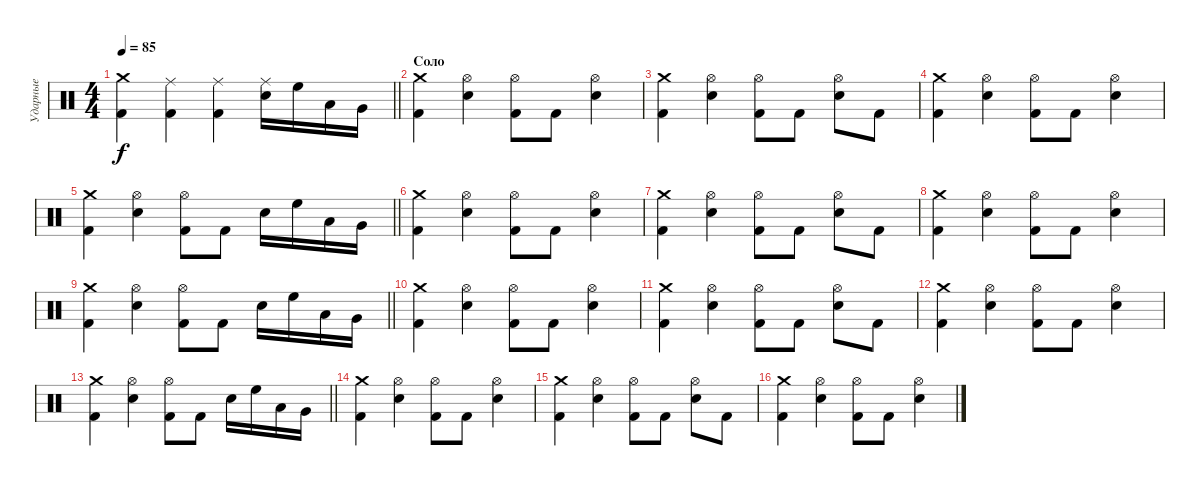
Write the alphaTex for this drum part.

\track ("Ударные" "Ударные") {instrument percussion}
\staff {score}
\articulation defaults
\ts (4 4)
\tempo 85
\clef neutral
\barLineRight lightlight
\ks c
("Crash medium (hit)" "Kick (hit) 2").4{dy f} ("Ride (middle)" "Kick (hit) 2").4 ("Ride (middle)" "Kick (hit) 2").4 ("Ride (middle)" "Snare (hit) 2").16 "High Floor Tom (hit)".16 "Low Tom (hit)".16 "Very Low Tom (hit)".16 |
\section ("" "Соло")
("Crash medium (hit)" "Kick (hit) 2").4 ("Hi-Hat (open)" "Snare (hit) 2").4 ("Hi-Hat (open)" "Kick (hit) 2").8 "Kick (hit) 2".8 ("Hi-Hat (open)" "Snare (hit) 2").4 |
("Crash medium (hit)" "Kick (hit) 2").4 ("Hi-Hat (open)" "Snare (hit) 2").4 ("Hi-Hat (open)" "Kick (hit) 2").8 "Kick (hit) 2".8 ("Hi-Hat (open)" "Snare (hit) 2").8 "Kick (hit) 2".8 |
("Crash medium (hit)" "Kick (hit) 2").4 ("Hi-Hat (open)" "Snare (hit) 2").4 ("Hi-Hat (open)" "Kick (hit) 2").8 "Kick (hit) 2".8 ("Hi-Hat (open)" "Snare (hit) 2").4 |
\barLineRight lightlight
("Crash medium (hit)" "Kick (hit) 2").4 ("Hi-Hat (open)" "Snare (hit) 2").4 ("Hi-Hat (open)" "Kick (hit) 2").8 "Kick (hit) 2".8 "Snare (hit) 2".16 "High Floor Tom (hit)".16 "Low Tom (hit)".16 "Very Low Tom (hit)".16 |
("Crash medium (hit)" "Kick (hit) 2").4 ("Hi-Hat (open)" "Snare (hit) 2").4 ("Hi-Hat (open)" "Kick (hit) 2").8 "Kick (hit) 2".8 ("Hi-Hat (open)" "Snare (hit) 2").4 |
("Crash medium (hit)" "Kick (hit) 2").4 ("Hi-Hat (open)" "Snare (hit) 2").4 ("Hi-Hat (open)" "Kick (hit) 2").8 "Kick (hit) 2".8 ("Hi-Hat (open)" "Snare (hit) 2").8 "Kick (hit) 2".8 |
("Crash medium (hit)" "Kick (hit) 2").4 ("Hi-Hat (open)" "Snare (hit) 2").4 ("Hi-Hat (open)" "Kick (hit) 2").8 "Kick (hit) 2".8 ("Hi-Hat (open)" "Snare (hit) 2").4 |
\barLineRight lightlight
("Crash medium (hit)" "Kick (hit) 2").4 ("Hi-Hat (open)" "Snare (hit) 2").4 ("Hi-Hat (open)" "Kick (hit) 2").8 "Kick (hit) 2".8 "Snare (hit) 2".16 "High Floor Tom (hit)".16 "Low Tom (hit)".16 "Very Low Tom (hit)".16 |
("Crash medium (hit)" "Kick (hit) 2").4 ("Hi-Hat (open)" "Snare (hit) 2").4 ("Hi-Hat (open)" "Kick (hit) 2").8 "Kick (hit) 2".8 ("Hi-Hat (open)" "Snare (hit) 2").4 |
("Crash medium (hit)" "Kick (hit) 2").4 ("Hi-Hat (open)" "Snare (hit) 2").4 ("Hi-Hat (open)" "Kick (hit) 2").8 "Kick (hit) 2".8 ("Hi-Hat (open)" "Snare (hit) 2").8 "Kick (hit) 2".8 |
("Crash medium (hit)" "Kick (hit) 2").4 ("Hi-Hat (open)" "Snare (hit) 2").4 ("Hi-Hat (open)" "Kick (hit) 2").8 "Kick (hit) 2".8 ("Hi-Hat (open)" "Snare (hit) 2").4 |
\barLineRight lightlight
("Crash medium (hit)" "Kick (hit) 2").4 ("Hi-Hat (open)" "Snare (hit) 2").4 ("Hi-Hat (open)" "Kick (hit) 2").8 "Kick (hit) 2".8 "Snare (hit) 2".16 "High Floor Tom (hit)".16 "Low Tom (hit)".16 "Very Low Tom (hit)".16 |
("Crash medium (hit)" "Kick (hit) 2").4 ("Hi-Hat (open)" "Snare (hit) 2").4 ("Hi-Hat (open)" "Kick (hit) 2").8 "Kick (hit) 2".8 ("Hi-Hat (open)" "Snare (hit) 2").4 |
("Crash medium (hit)" "Kick (hit) 2").4 ("Hi-Hat (open)" "Snare (hit) 2").4 ("Hi-Hat (open)" "Kick (hit) 2").8 "Kick (hit) 2".8 ("Hi-Hat (open)" "Snare (hit) 2").8 "Kick (hit) 2".8 |
("Crash medium (hit)" "Kick (hit) 2").4 ("Hi-Hat (open)" "Snare (hit) 2").4 ("Hi-Hat (open)" "Kick (hit) 2").8 "Kick (hit) 2".8 ("Hi-Hat (open)" "Snare (hit) 2").4
